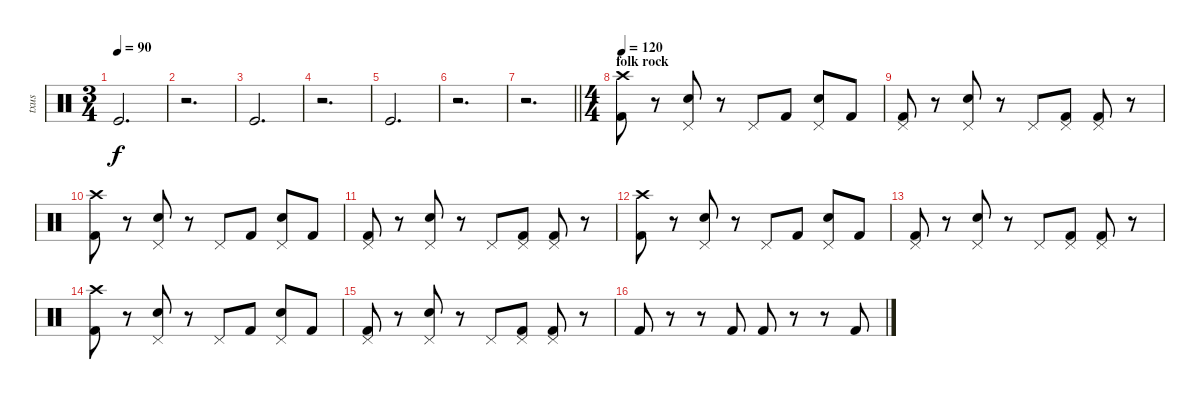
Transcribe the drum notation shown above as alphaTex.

\track ("txus" "txus") {instrument percussion}
\staff {score}
\articulation defaults
\ts (3 4)
\tempo 90
\clef neutral
\ks c "Kick (hit)".2{d dy f}
|
r.2{d} |
"Kick (hit)".2{d} |
r.2{d} |
"Kick (hit)".2{d} |
r.2{d} |
\barLineRight lightlight
r.2{d} |
\ts (4 4)
\section ("" "folk rock")
\tempo 120
("Crash high (hit)" "Kick (hit) 2").8 r.8 ("Electric Snare (hit)" "Pedal Hi-Hat (hit)").8 r.8 "Pedal Hi-Hat (hit)".8 "Kick (hit) 2".8 ("Electric Snare (hit)" "Pedal Hi-Hat (hit)").8 "Kick (hit) 2".8 |
("Pedal Hi-Hat (hit)" "Kick (hit) 2").8 r.8 ("Electric Snare (hit)" "Pedal Hi-Hat (hit)").8 r.8 "Pedal Hi-Hat (hit)".8 ("Kick (hit) 2" "Pedal Hi-Hat (hit)").8 ("Kick (hit) 2" "Pedal Hi-Hat (hit)").8 r.8 |
("Crash high (hit)" "Kick (hit) 2").8 r.8 ("Electric Snare (hit)" "Pedal Hi-Hat (hit)").8 r.8 "Pedal Hi-Hat (hit)".8 "Kick (hit) 2".8 ("Electric Snare (hit)" "Pedal Hi-Hat (hit)").8 "Kick (hit) 2".8 |
("Pedal Hi-Hat (hit)" "Kick (hit) 2").8 r.8 ("Electric Snare (hit)" "Pedal Hi-Hat (hit)").8 r.8 "Pedal Hi-Hat (hit)".8 ("Kick (hit) 2" "Pedal Hi-Hat (hit)").8 ("Kick (hit) 2" "Pedal Hi-Hat (hit)").8 r.8 |
("Crash high (hit)" "Kick (hit) 2").8 r.8 ("Electric Snare (hit)" "Pedal Hi-Hat (hit)").8 r.8 "Pedal Hi-Hat (hit)".8 "Kick (hit) 2".8 ("Electric Snare (hit)" "Pedal Hi-Hat (hit)").8 "Kick (hit) 2".8 |
("Pedal Hi-Hat (hit)" "Kick (hit) 2").8 r.8 ("Electric Snare (hit)" "Pedal Hi-Hat (hit)").8 r.8 "Pedal Hi-Hat (hit)".8 ("Kick (hit) 2" "Pedal Hi-Hat (hit)").8 ("Kick (hit) 2" "Pedal Hi-Hat (hit)").8 r.8 |
("Crash high (hit)" "Kick (hit) 2").8 r.8 ("Electric Snare (hit)" "Pedal Hi-Hat (hit)").8 r.8 "Pedal Hi-Hat (hit)".8 "Kick (hit) 2".8 ("Electric Snare (hit)" "Pedal Hi-Hat (hit)").8 "Kick (hit) 2".8 |
("Pedal Hi-Hat (hit)" "Kick (hit) 2").8 r.8 ("Electric Snare (hit)" "Pedal Hi-Hat (hit)").8 r.8 "Pedal Hi-Hat (hit)".8 ("Kick (hit) 2" "Pedal Hi-Hat (hit)").8 ("Kick (hit) 2" "Pedal Hi-Hat (hit)").8 r.8 |
"Kick (hit) 2".8 r.8 r.8 "Kick (hit) 2".8 "Kick (hit) 2".8 r.8 r.8 "Kick (hit) 2".8
